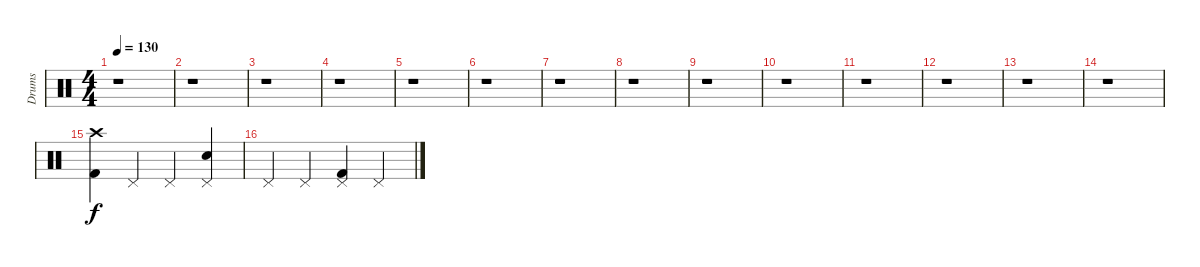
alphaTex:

\track ("Drums" "Drums") {instrument percussion}
\staff {score}
\articulation defaults
\ts (4 4)
\tempo 130
\clef neutral
\ks c
r.1{dy f} |
r.1 |
r.1 |
r.1 |
r.1 |
r.1 |
r.1 |
r.1 |
r.1 |
r.1 |
r.1 |
r.1 |
r.1 |
r.1 |
("Crash high (hit)" "Kick (hit) 2").4 "Pedal Hi-Hat (hit)".4 "Pedal Hi-Hat (hit)".4 ("Pedal Hi-Hat (hit)" "Snare (hit) 2").4 |
"Pedal Hi-Hat (hit)".4 "Pedal Hi-Hat (hit)".4 ("Pedal Hi-Hat (hit)" "Kick (hit) 2").4 "Pedal Hi-Hat (hit)".4
